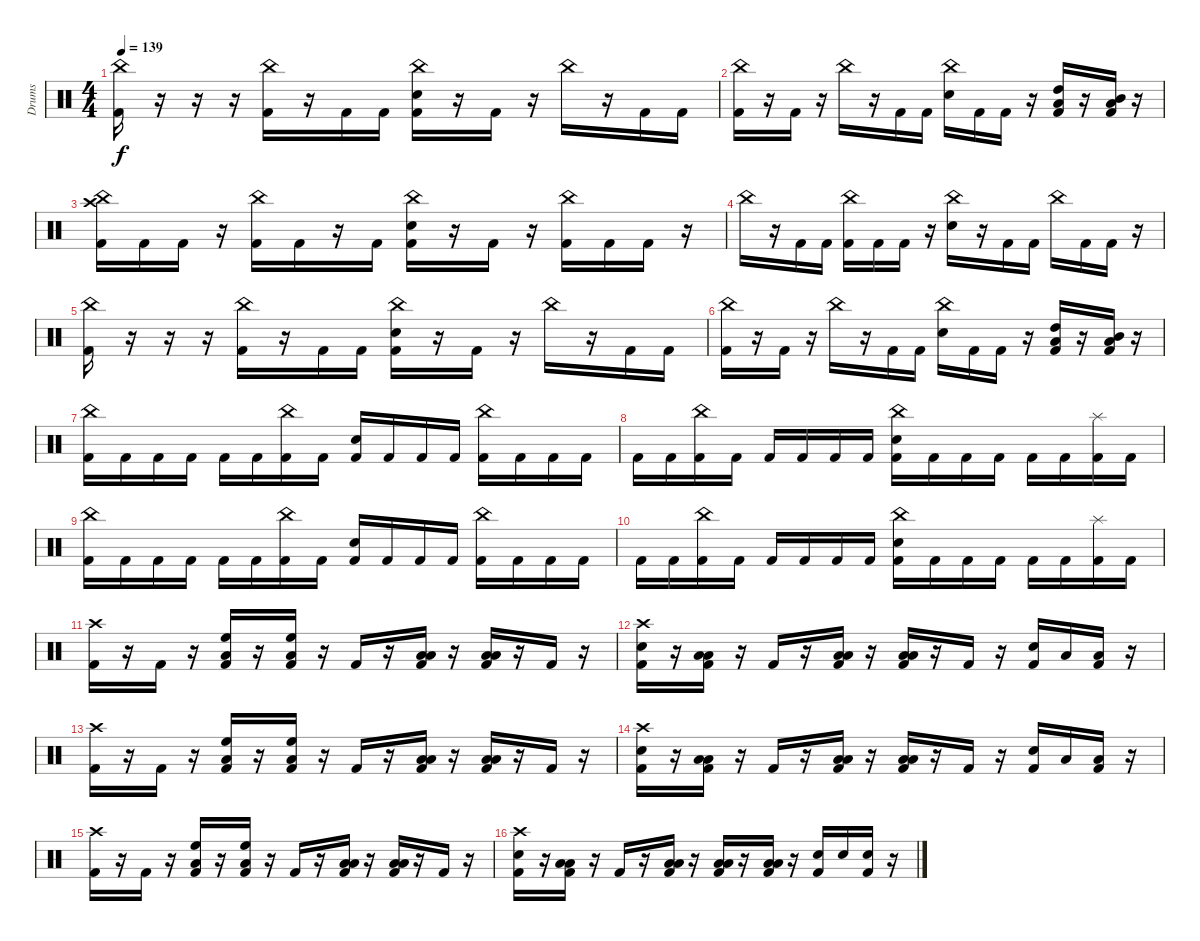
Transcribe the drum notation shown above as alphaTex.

\track ("Drums" "Drums") {instrument percussion}
\staff {score}
\articulation defaults
\ts (4 4)
\tempo 139
\clef neutral
\ks c
("China (hit)" "Kick (hit) 2").16{dy f} r.16 r.16 r.16 ("China (hit)" "Kick (hit) 2").16 r.16 "Kick (hit) 2".16 "Kick (hit) 2".16 ("China (hit)" "Electric Snare (hit)" "Kick (hit) 2").16 r.16 "Kick (hit) 2".16 r.16 "China (hit)".16 r.16 "Kick (hit) 2".16 "Kick (hit) 2".16 |
("China (hit)" "Kick (hit) 2").16 r.16 "Kick (hit) 2".16 r.16 "China (hit)".16 r.16 "Kick (hit) 2".16 "Kick (hit) 2".16 ("China (hit)" "Electric Snare (hit)").16 "Kick (hit) 2".16 "Kick (hit) 2".16 r.16 ("High Tom (hit)" "Low Tom (hit)" "Kick (hit) 2").16 r.16 ("Mid Tom (hit)" "Low Tom (hit)" "Kick (hit) 2").16 r.16 |
("China (hit)" "Crash high (hit)" "Kick (hit) 2").16{volume 13} "Kick (hit) 2".16 "Kick (hit) 2".16 r.16 ("China (hit)" "Kick (hit) 2").16 "Kick (hit) 2".16 r.16 "Kick (hit) 2".16 ("China (hit)" "Electric Snare (hit)" "Kick (hit) 2").16 r.16 "Kick (hit) 2".16 r.16 ("China (hit)" "Kick (hit) 2").16 "Kick (hit) 2".16 "Kick (hit) 2".16 r.16 |
"China (hit)".16 r.16 "Kick (hit) 2".16 "Kick (hit) 2".16 ("China (hit)" "Kick (hit) 2").16 "Kick (hit) 2".16 "Kick (hit) 2".16 r.16 ("China (hit)" "Electric Snare (hit)").16 r.16 "Kick (hit) 2".16 "Kick (hit) 2".16 "China (hit)".16 "Kick (hit) 2".16 "Kick (hit) 2".16 r.16 |
("China (hit)" "Kick (hit) 2").16 r.16 r.16 r.16 ("China (hit)" "Kick (hit) 2").16 r.16 "Kick (hit) 2".16 "Kick (hit) 2".16 ("China (hit)" "Electric Snare (hit)" "Kick (hit) 2").16 r.16 "Kick (hit) 2".16 r.16 "China (hit)".16 r.16 "Kick (hit) 2".16 "Kick (hit) 2".16 |
("China (hit)" "Kick (hit) 2").16 r.16 "Kick (hit) 2".16 r.16 "China (hit)".16 r.16 "Kick (hit) 2".16 "Kick (hit) 2".16 ("China (hit)" "Electric Snare (hit)").16 "Kick (hit) 2".16 "Kick (hit) 2".16 r.16 ("High Tom (hit)" "Low Tom (hit)" "Kick (hit) 2").16 r.16 ("Mid Tom (hit)" "Low Tom (hit)" "Kick (hit) 2").16 r.16 |
("China (hit)" "Kick (hit) 2").16{volume 13} "Kick (hit) 2".16 "Kick (hit) 2".16 "Kick (hit) 2".16 "Kick (hit) 2".16 "Kick (hit) 2".16 ("China (hit)" "Kick (hit) 2").16 "Kick (hit) 2".16 ("Electric Snare (hit)" "Kick (hit) 2").16 "Kick (hit) 2".16 "Kick (hit) 2".16 "Kick (hit) 2".16 ("China (hit)" "Kick (hit) 2").16 "Kick (hit) 2".16 "Kick (hit) 2".16 "Kick (hit) 2".16 |
"Kick (hit) 2".16 "Kick (hit) 2".16 ("China (hit)" "Kick (hit) 2").16 "Kick (hit) 2".16 "Kick (hit) 2".16 "Kick (hit) 2".16 "Kick (hit) 2".16 "Kick (hit) 2".16 ("China (hit)" "Electric Snare (hit)" "Kick (hit) 2").16 "Kick (hit) 2".16 "Kick (hit) 2".16 "Kick (hit) 2".16 "Kick (hit) 2".16 "Kick (hit) 2".16 ("Splash (hit)" "Kick (hit) 2").16 "Kick (hit) 2".16 |
("China (hit)" "Kick (hit) 2").16{volume 13} "Kick (hit) 2".16 "Kick (hit) 2".16 "Kick (hit) 2".16 "Kick (hit) 2".16 "Kick (hit) 2".16 ("China (hit)" "Kick (hit) 2").16 "Kick (hit) 2".16 ("Electric Snare (hit)" "Kick (hit) 2").16 "Kick (hit) 2".16 "Kick (hit) 2".16 "Kick (hit) 2".16 ("China (hit)" "Kick (hit) 2").16 "Kick (hit) 2".16 "Kick (hit) 2".16 "Kick (hit) 2".16 |
"Kick (hit) 2".16 "Kick (hit) 2".16 ("China (hit)" "Kick (hit) 2").16 "Kick (hit) 2".16 "Kick (hit) 2".16 "Kick (hit) 2".16 "Kick (hit) 2".16 "Kick (hit) 2".16 ("China (hit)" "Electric Snare (hit)" "Kick (hit) 2").16 "Kick (hit) 2".16 "Kick (hit) 2".16 "Kick (hit) 2".16 "Kick (hit) 2".16 "Kick (hit) 2".16 ("Splash (hit)" "Kick (hit) 2").16 "Kick (hit) 2".16 |
("Crash high (hit)" "Kick (hit) 2").16 r.16 "Kick (hit) 2".16 r.16 ("High Floor Tom (hit)" "Low Floor Tom (hit)" "Kick (hit) 2").16 r.16 ("High Floor Tom (hit)" "Low Floor Tom (hit)" "Kick (hit) 2").16 r.16 "Kick (hit) 2".16 r.16 ("Low Tom (hit)" "Low Floor Tom (hit)" "Kick (hit) 2").16 r.16 ("Low Tom (hit)" "Low Floor Tom (hit)" "Kick (hit) 2").16 r.16 "Kick (hit) 2".16 r.16 |
("Crash high (hit)" "Electric Snare (hit)" "Kick (hit) 2").16 r.16 ("Low Tom (hit)" "Low Floor Tom (hit)" "Kick (hit) 2").16 r.16 "Kick (hit) 2".16 r.16 ("Low Tom (hit)" "Low Floor Tom (hit)" "Kick (hit) 2").16 r.16 ("Low Tom (hit)" "Low Floor Tom (hit)" "Kick (hit) 2").16 r.16 "Kick (hit) 2".16 r.16 ("Electric Snare (hit)" "Kick (hit) 2").16 "Low Tom (hit)".16 ("Low Floor Tom (hit)" "Kick (hit) 2").16 r.16 |
("Crash high (hit)" "Kick (hit) 2").16 r.16 "Kick (hit) 2".16 r.16 ("High Floor Tom (hit)" "Low Floor Tom (hit)" "Kick (hit) 2").16 r.16 ("High Floor Tom (hit)" "Low Floor Tom (hit)" "Kick (hit) 2").16 r.16 "Kick (hit) 2".16 r.16 ("Low Tom (hit)" "Low Floor Tom (hit)" "Kick (hit) 2").16 r.16 ("Low Tom (hit)" "Low Floor Tom (hit)" "Kick (hit) 2").16 r.16 "Kick (hit) 2".16 r.16 |
("Crash high (hit)" "Electric Snare (hit)" "Kick (hit) 2").16 r.16 ("Low Tom (hit)" "Low Floor Tom (hit)" "Kick (hit) 2").16 r.16 "Kick (hit) 2".16 r.16 ("Low Tom (hit)" "Low Floor Tom (hit)" "Kick (hit) 2").16 r.16 ("Low Tom (hit)" "Low Floor Tom (hit)" "Kick (hit) 2").16 r.16 "Kick (hit) 2".16 r.16 ("Electric Snare (hit)" "Kick (hit) 2").16 "Low Tom (hit)".16 ("Low Floor Tom (hit)" "Kick (hit) 2").16 r.16 |
("Crash high (hit)" "Kick (hit) 2").16 r.16 "Kick (hit) 2".16 r.16 ("High Floor Tom (hit)" "Low Floor Tom (hit)" "Kick (hit) 2").16 r.16 ("High Floor Tom (hit)" "Low Floor Tom (hit)" "Kick (hit) 2").16 r.16 "Kick (hit) 2".16 r.16 ("Low Tom (hit)" "Low Floor Tom (hit)" "Kick (hit) 2").16 r.16 ("Low Tom (hit)" "Low Floor Tom (hit)" "Kick (hit) 2").16 r.16 "Kick (hit) 2".16 r.16 |
("Crash high (hit)" "Electric Snare (hit)" "Kick (hit) 2").16 r.16 ("Low Tom (hit)" "Low Floor Tom (hit)" "Kick (hit) 2").16 r.16 "Kick (hit) 2".16 r.16 ("Low Tom (hit)" "Low Floor Tom (hit)" "Kick (hit) 2").16 r.16 ("Low Tom (hit)" "Low Floor Tom (hit)" "Kick (hit) 2").16 r.16 ("Low Tom (hit)" "Low Floor Tom (hit)" "Kick (hit) 2").16 r.16 ("Electric Snare (hit)" "Kick (hit) 2").16 "Electric Snare (hit)".16 ("Electric Snare (hit)" "Kick (hit) 2").16 r.16
